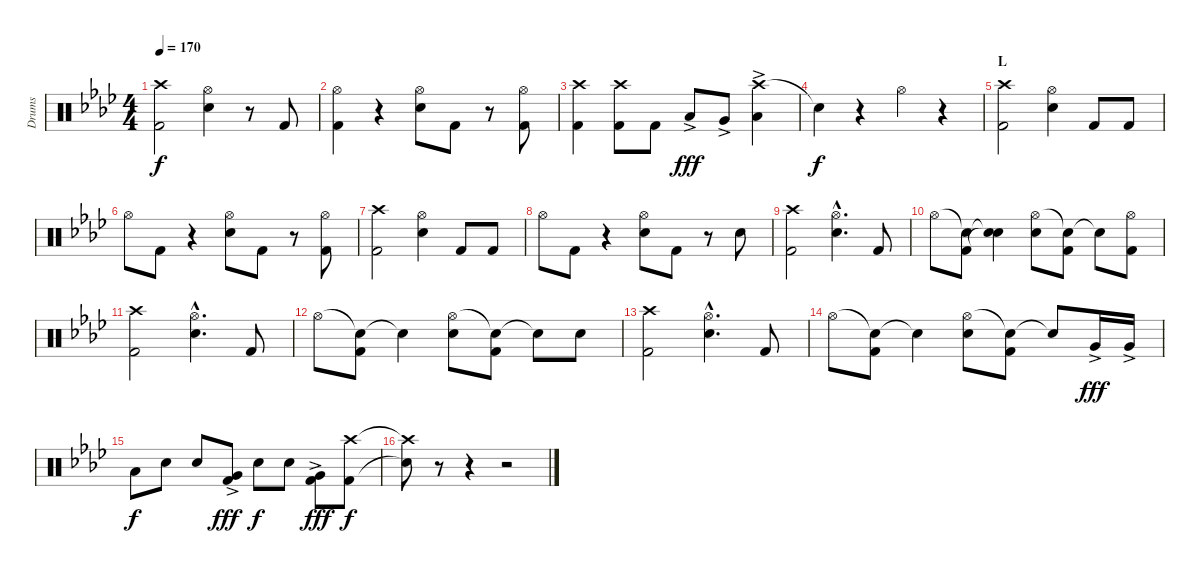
\track ("Drums" "Drums") {instrument percussion}
\staff {score}
\articulation defaults
\ts (4 4)
\tempo 170
\clef neutral
\ks ab
("Crash high (hit)" "Kick (hit) 2").2{dy f} ("Hi-Hat (open)" "Snare (hit) 2").4 r.8 "Kick (hit) 2".8 |
("Hi-Hat (open)" "Kick (hit) 2").4 r.4 ("Hi-Hat (open)" "Snare (hit) 2").8 "Kick (hit) 2".8 r.8 ("Hi-Hat (open)" "Kick (hit) 2").8 |
("Crash high (hit)" "Kick (hit) 2").4 ("Crash high (hit)" "Kick (hit) 2").8 "Kick (hit) 2".8 "Low Tom (hit)"{ac}.8{dy fff} "Very Low Tom (hit)"{ac}.8 ("Crash high (hit)" "Low Floor Tom (hit)"{ac}).4 |
"Snare (hit)"{t}.4{dy f} r.4 "Hi-Hat (open)".4 r.4 |
\section ("" "L")
("Crash high (hit)" "Kick (hit) 2").2 ("Hi-Hat (open)" "Snare (hit) 2").4 "Kick (hit) 2".8 "Kick (hit) 2".8 |
"Hi-Hat (open)".8 "Kick (hit) 2".8 r.4 ("Hi-Hat (open)" "Snare (hit) 2").8 "Kick (hit) 2".8 r.8 ("Hi-Hat (open)" "Kick (hit) 2").8 |
("Crash high (hit)" "Kick (hit) 2").2 ("Hi-Hat (open)" "Snare (hit) 2").4 "Kick (hit) 2".8 "Kick (hit) 2".8 |
"Hi-Hat (open)".8 "Kick (hit) 2".8 r.4 ("Hi-Hat (open)" "Snare (hit) 2").8 "Kick (hit) 2".8 r.8 "Snare (hit) 2".8 |
("Crash high (hit)" "Kick (hit) 2").2 ("Hi-Hat (open)"{hac} "Snare (hit) 2"{hac}).4{d} "Kick (hit) 2".8 |
"Hi-Hat (open)".8 ("Snare (hit)"{t} "Kick (hit) 2").8 ("Snare (hit)"{t} "Snare (hit)"{t}).4 ("Hi-Hat (open)" "Snare (hit) 2").8 ("Snare (hit)"{t} "Kick (hit) 2").8 "Snare (hit)"{t}.8 ("Hi-Hat (open)" "Kick (hit) 2").8 |
("Crash high (hit)" "Kick (hit) 2").2 ("Hi-Hat (open)"{hac} "Snare (hit) 2"{hac}).4{d} "Kick (hit) 2".8 |
"Hi-Hat (open)".8 ("Snare (hit)"{t} "Kick (hit) 2").8 "Snare (hit)"{t}.4 ("Hi-Hat (open)" "Snare (hit) 2").8 ("Snare (hit)"{t} "Kick (hit) 2").8 "Snare (hit)"{t}.8 "Snare (hit) 2".8 |
("Crash high (hit)" "Kick (hit) 2").2 ("Hi-Hat (open)"{hac} "Snare (hit) 2"{hac}).4{d} "Kick (hit) 2".8 |
"Hi-Hat (open)".8 ("Snare (hit)"{t} "Kick (hit) 2").8 "Snare (hit)"{t}.4 ("Hi-Hat (open)" "Snare (hit) 2").8 ("Snare (hit)"{t} "Kick (hit) 2").8 "Snare (hit)"{t}.8 "Very Low Tom (hit)"{ac}.16{dy fff} "Very Low Tom (hit)"{ac}.16 |
"Low Tom (hit)".8{dy f} "Snare (hit) 2".8 "Snare (hit) 2".8 ("Very Low Tom (hit)"{ac} "Kick (hit) 2").8{dy fff} "Snare (hit) 2".8{dy f} "Snare (hit) 2".8 ("Very Low Tom (hit)"{ac} "Kick (hit) 2").8{dy fff} ("Crash high (hit)" "Kick (hit) 2").8{dy f} |
("Crash high (hit)"{t} "Snare (hit)"{t}).8 r.8 r.4 r.2
